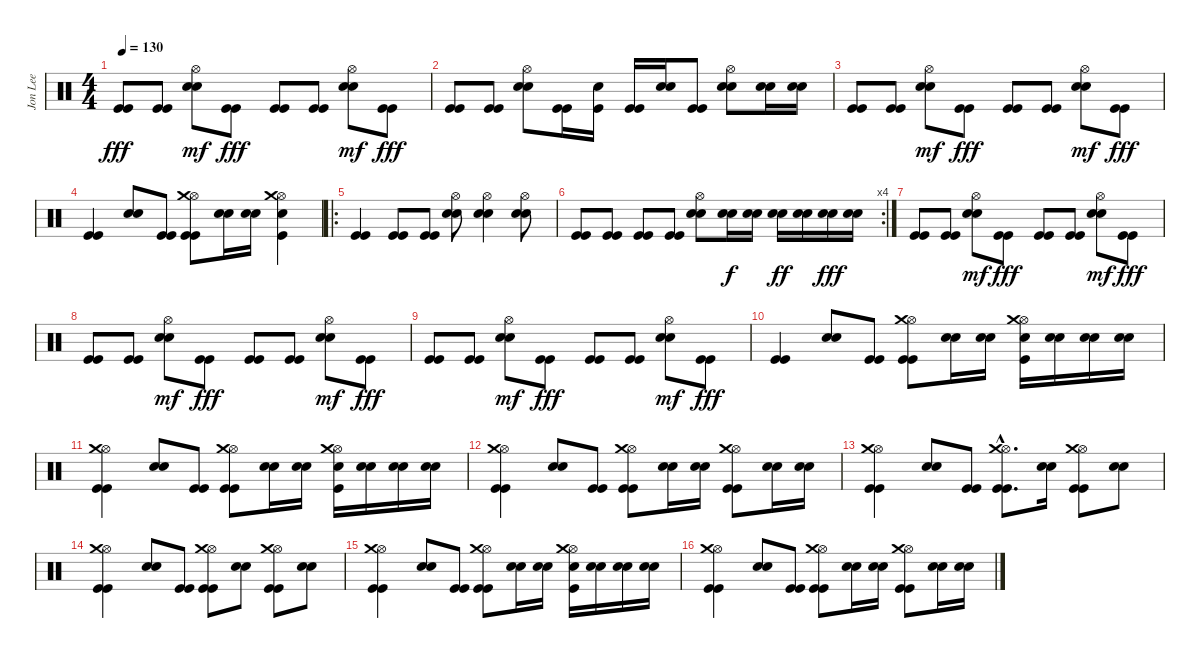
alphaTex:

\track ("Jon Lee" "Jon Lee") {instrument percussion}
\staff {score}
\articulation defaults
\ts (4 4)
\tempo 130
\clef neutral
\ks c
("Kick (hit)" "Kick (hit)").8{dy fff} ("Kick (hit)" "Kick (hit)").8 ("Electric Snare (hit)" "Snare (hit) 2" "Hi-Hat (open)").8{dy mf} ("Kick (hit)" "Kick (hit)").8{dy fff} ("Kick (hit)" "Kick (hit)").8 ("Kick (hit)" "Kick (hit)").8 ("Electric Snare (hit)" "Snare (hit) 2" "Hi-Hat (open)").8{dy mf} ("Kick (hit)" "Kick (hit)").8{dy fff} |
("Kick (hit)" "Kick (hit)").8 ("Kick (hit)" "Kick (hit)").8 ("Electric Snare (hit)" "Snare (hit) 2" "Hi-Hat (open)").8 ("Kick (hit)" "Kick (hit)").16 ("Snare (hit) 2" "Kick (hit)").16 ("Kick (hit)" "Kick (hit)").16 ("Snare (hit) 2" "Electric Snare (hit)").16 ("Kick (hit)" "Kick (hit)").8 ("Snare (hit) 2" "Electric Snare (hit)" "Hi-Hat (open)").8 ("Snare (hit) 2" "Electric Snare (hit)").16 ("Snare (hit) 2" "Electric Snare (hit)").16 |
("Kick (hit)" "Kick (hit)").8 ("Kick (hit)" "Kick (hit)").8 ("Electric Snare (hit)" "Snare (hit) 2" "Hi-Hat (open)").8{dy mf} ("Kick (hit)" "Kick (hit)").8{dy fff} ("Kick (hit)" "Kick (hit)").8 ("Kick (hit)" "Kick (hit)").8 ("Electric Snare (hit)" "Snare (hit) 2" "Hi-Hat (open)").8{dy mf} ("Kick (hit)" "Kick (hit)").8{dy fff} |
("Kick (hit)" "Kick (hit)").4 ("Electric Snare (hit)" "Snare (hit) 2").8 ("Kick (hit)" "Kick (hit)").8 ("Kick (hit)" "Kick (hit)" "Hi-Hat (open)" "Crash medium (hit)").8 ("Electric Snare (hit)" "Snare (hit) 2").16 ("Electric Snare (hit)" "Snare (hit) 2").16 ("Electric Snare (hit)" "Kick (hit)" "Hi-Hat (open)" "Crash medium (hit)").4 |
\ro
("Kick (hit)" "Kick (hit)").4 ("Kick (hit)" "Kick (hit)").8 ("Kick (hit)" "Kick (hit)").8 ("Electric Snare (hit)" "Snare (hit) 2" "Hi-Hat (open)").8 ("Electric Snare (hit)" "Snare (hit) 2" "Hi-Hat (open)").4 ("Electric Snare (hit)" "Snare (hit) 2" "Hi-Hat (open)").8 |
\rc 4
("Kick (hit)" "Kick (hit)").8 ("Kick (hit)" "Kick (hit)").8 ("Kick (hit)" "Kick (hit)").8 ("Kick (hit)" "Kick (hit)").8 ("Electric Snare (hit)" "Snare (hit) 2" "Hi-Hat (open)").8 ("Snare (hit) 2" "Electric Snare (hit)").16{dy f} ("Snare (hit) 2" "Electric Snare (hit)").16 ("Snare (hit) 2" "Electric Snare (hit)").16{dy ff} ("Snare (hit) 2" "Electric Snare (hit)").16 ("Snare (hit) 2" "Electric Snare (hit)").16{dy fff} ("Snare (hit) 2" "Electric Snare (hit)").16 |
("Kick (hit)" "Kick (hit)").8 ("Kick (hit)" "Kick (hit)").8 ("Electric Snare (hit)" "Snare (hit) 2" "Hi-Hat (open)").8{dy mf} ("Kick (hit)" "Kick (hit)").8{dy fff} ("Kick (hit)" "Kick (hit)").8 ("Kick (hit)" "Kick (hit)").8 ("Electric Snare (hit)" "Snare (hit) 2" "Hi-Hat (open)").8{dy mf} ("Kick (hit)" "Kick (hit)").8{dy fff} |
("Kick (hit)" "Kick (hit)").8 ("Kick (hit)" "Kick (hit)").8 ("Electric Snare (hit)" "Snare (hit) 2" "Hi-Hat (open)").8{dy mf} ("Kick (hit)" "Kick (hit)").8{dy fff} ("Kick (hit)" "Kick (hit)").8 ("Kick (hit)" "Kick (hit)").8 ("Electric Snare (hit)" "Snare (hit) 2" "Hi-Hat (open)").8{dy mf} ("Kick (hit)" "Kick (hit)").8{dy fff} |
("Kick (hit)" "Kick (hit)").8 ("Kick (hit)" "Kick (hit)").8 ("Electric Snare (hit)" "Snare (hit) 2" "Hi-Hat (open)").8{dy mf} ("Kick (hit)" "Kick (hit)").8{dy fff} ("Kick (hit)" "Kick (hit)").8 ("Kick (hit)" "Kick (hit)").8 ("Electric Snare (hit)" "Snare (hit) 2" "Hi-Hat (open)").8{dy mf} ("Kick (hit)" "Kick (hit)").8{dy fff} |
("Kick (hit)" "Kick (hit)").4 ("Electric Snare (hit)" "Snare (hit) 2").8 ("Kick (hit)" "Kick (hit)").8 ("Kick (hit)" "Kick (hit)" "Hi-Hat (open)" "Crash medium (hit)").8 ("Electric Snare (hit)" "Snare (hit) 2").16 ("Electric Snare (hit)" "Snare (hit) 2").16 ("Electric Snare (hit)" "Kick (hit)" "Hi-Hat (open)" "Crash medium (hit)").16 ("Electric Snare (hit)" "Snare (hit) 2").16 ("Electric Snare (hit)" "Snare (hit) 2").16 ("Electric Snare (hit)" "Snare (hit) 2").16 |
("Kick (hit)" "Kick (hit)" "Hi-Hat (open)" "Crash medium (hit)").4 ("Electric Snare (hit)" "Snare (hit) 2").8 ("Kick (hit)" "Kick (hit)").8 ("Kick (hit)" "Kick (hit)" "Hi-Hat (open)" "Crash medium (hit)").8 ("Electric Snare (hit)" "Snare (hit) 2").16 ("Electric Snare (hit)" "Snare (hit) 2").16 ("Electric Snare (hit)" "Kick (hit)" "Hi-Hat (open)" "Crash medium (hit)").16 ("Electric Snare (hit)" "Snare (hit) 2").16 ("Electric Snare (hit)" "Snare (hit) 2").16 ("Electric Snare (hit)" "Snare (hit) 2").16 |
("Kick (hit)" "Kick (hit)" "Hi-Hat (open)" "Crash medium (hit)").4 ("Electric Snare (hit)" "Snare (hit) 2").8 ("Kick (hit)" "Kick (hit)").8 ("Kick (hit)" "Kick (hit)" "Hi-Hat (open)" "Crash medium (hit)").8 ("Electric Snare (hit)" "Snare (hit) 2").16 ("Electric Snare (hit)" "Snare (hit) 2").16 ("Kick (hit)" "Kick (hit)" "Hi-Hat (open)" "Crash medium (hit)").8 ("Electric Snare (hit)" "Snare (hit) 2").16 ("Electric Snare (hit)" "Snare (hit) 2").16 |
("Kick (hit)" "Kick (hit)" "Hi-Hat (open)" "Crash medium (hit)").4 ("Electric Snare (hit)" "Snare (hit) 2").8 ("Kick (hit)" "Kick (hit)").8 ("Kick (hit)"{hac} "Kick (hit)"{hac} "Hi-Hat (open)"{hac} "Crash medium (hit)"{hac}).8{d} ("Electric Snare (hit)" "Snare (hit) 2").16 ("Kick (hit)" "Kick (hit)" "Hi-Hat (open)" "Crash medium (hit)").8 ("Electric Snare (hit)" "Snare (hit) 2").8 |
("Kick (hit)" "Kick (hit)" "Hi-Hat (open)" "Crash medium (hit)").4 ("Electric Snare (hit)" "Snare (hit) 2").8 ("Kick (hit)" "Kick (hit)").8 ("Kick (hit)" "Kick (hit)" "Hi-Hat (open)" "Crash medium (hit)").8 ("Electric Snare (hit)" "Snare (hit) 2").8 ("Kick (hit)" "Kick (hit)" "Hi-Hat (open)" "Crash medium (hit)").8 ("Electric Snare (hit)" "Snare (hit) 2").8 |
("Kick (hit)" "Kick (hit)" "Hi-Hat (open)" "Crash medium (hit)").4 ("Electric Snare (hit)" "Snare (hit) 2").8 ("Kick (hit)" "Kick (hit)").8 ("Kick (hit)" "Kick (hit)" "Hi-Hat (open)" "Crash medium (hit)").8 ("Electric Snare (hit)" "Snare (hit) 2").16 ("Electric Snare (hit)" "Snare (hit) 2").16 ("Electric Snare (hit)" "Kick (hit)" "Hi-Hat (open)" "Crash medium (hit)").16 ("Electric Snare (hit)" "Snare (hit) 2").16 ("Electric Snare (hit)" "Snare (hit) 2").16 ("Electric Snare (hit)" "Snare (hit) 2").16 |
("Kick (hit)" "Kick (hit)" "Hi-Hat (open)" "Crash medium (hit)").4 ("Electric Snare (hit)" "Snare (hit) 2").8 ("Kick (hit)" "Kick (hit)").8 ("Kick (hit)" "Kick (hit)" "Hi-Hat (open)" "Crash medium (hit)").8 ("Electric Snare (hit)" "Snare (hit) 2").16 ("Electric Snare (hit)" "Snare (hit) 2").16 ("Kick (hit)" "Kick (hit)" "Hi-Hat (open)" "Crash medium (hit)").8 ("Electric Snare (hit)" "Snare (hit) 2").16 ("Electric Snare (hit)" "Snare (hit) 2").16
